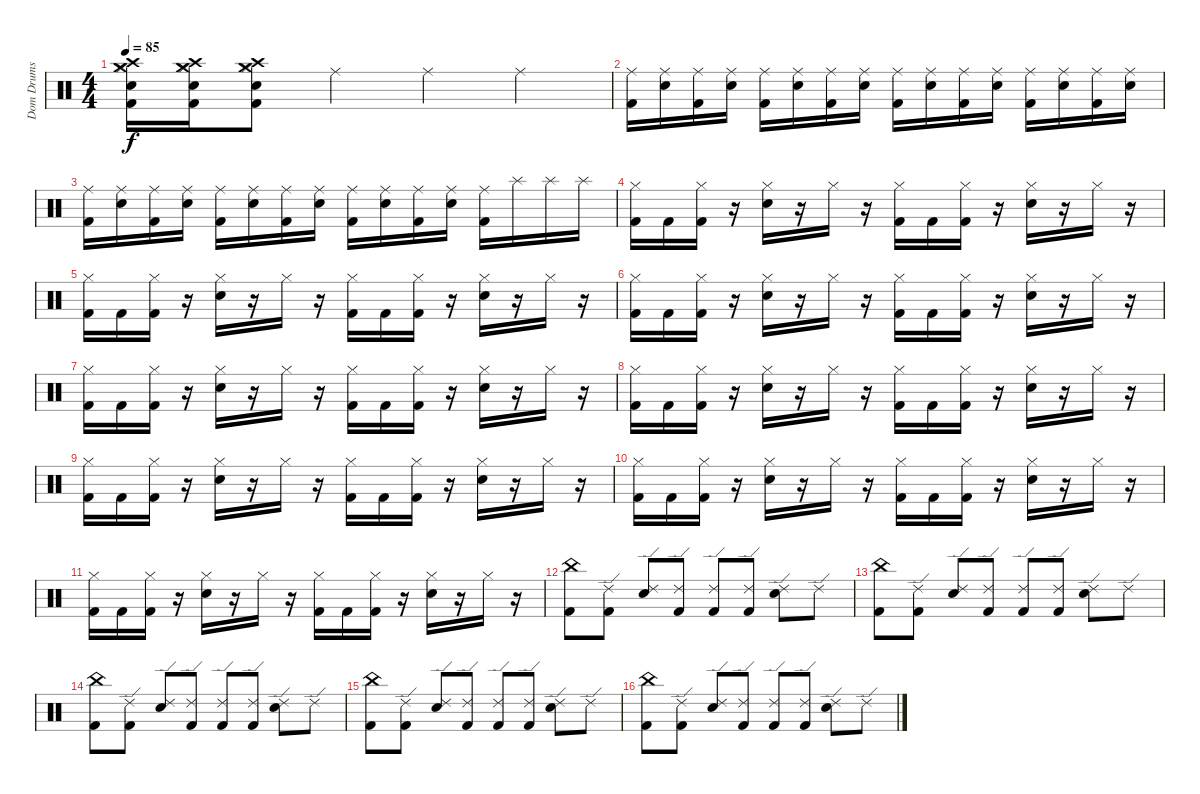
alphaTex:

\track ("Dom Drums" "Dom Drums") {instrument percussion}
\staff {score}
\articulation defaults
\ts (4 4)
\tempo 85
\clef neutral
\ks c
("Hi-Hat (closed)" "Crash medium (hit)" "Snare (hit) 2" "Crash high (hit)" "Kick (hit) 2").16{dy f} ("Hi-Hat (closed)" "Crash medium (hit)" "Snare (hit) 2" "Crash high (hit)" "Kick (hit) 2").16 ("Hi-Hat (closed)" "Crash medium (hit)" "Snare (hit) 2" "Crash high (hit)" "Kick (hit) 2").8 "Ride (middle)".4 "Ride (middle)".4 "Ride (middle)".4 |
("Ride (middle)" "Kick (hit) 2").16 ("Ride (middle)" "Snare (hit) 2").16 ("Ride (middle)" "Kick (hit) 2").16 ("Ride (middle)" "Snare (hit) 2").16 ("Ride (middle)" "Kick (hit) 2").16 ("Ride (middle)" "Snare (hit) 2").16 ("Ride (middle)" "Kick (hit) 2").16 ("Ride (middle)" "Snare (hit) 2").16 ("Ride (middle)" "Kick (hit) 2").16 ("Ride (middle)" "Snare (hit) 2").16 ("Ride (middle)" "Kick (hit) 2").16 ("Ride (middle)" "Snare (hit) 2").16 ("Ride (middle)" "Kick (hit) 2").16 ("Ride (middle)" "Snare (hit) 2").16 ("Ride (middle)" "Kick (hit) 2").16 ("Ride (middle)" "Snare (hit) 2").16 |
("Ride (middle)" "Kick (hit) 2").16 ("Ride (middle)" "Snare (hit) 2").16 ("Ride (middle)" "Kick (hit) 2").16 ("Ride (middle)" "Snare (hit) 2").16 ("Ride (middle)" "Kick (hit) 2").16 ("Ride (middle)" "Snare (hit) 2").16 ("Ride (middle)" "Kick (hit) 2").16 ("Ride (middle)" "Snare (hit) 2").16 ("Ride (middle)" "Kick (hit) 2").16 ("Ride (middle)" "Snare (hit) 2").16 ("Ride (middle)" "Kick (hit) 2").16 ("Ride (middle)" "Snare (hit) 2").16 ("Ride (middle)" "Kick (hit) 2").16 "Splash (hit)".16 "Splash (hit)".16 "Splash (hit)".16 |
("Hi-Hat (closed)" "Kick (hit) 2").16 "Kick (hit) 2".16 ("Hi-Hat (closed)" "Kick (hit) 2").16 r.16 ("Hi-Hat (closed)" "Snare (hit) 2").16 r.16 "Hi-Hat (closed)".16 r.16 ("Hi-Hat (closed)" "Kick (hit) 2").16 "Kick (hit) 2".16 ("Hi-Hat (closed)" "Kick (hit) 2").16 r.16 ("Hi-Hat (closed)" "Snare (hit) 2").16 r.16 "Hi-Hat (closed)".16 r.16 |
("Hi-Hat (closed)" "Kick (hit) 2").16 "Kick (hit) 2".16 ("Hi-Hat (closed)" "Kick (hit) 2").16 r.16 ("Hi-Hat (closed)" "Snare (hit) 2").16 r.16 "Hi-Hat (closed)".16 r.16 ("Hi-Hat (closed)" "Kick (hit) 2").16 "Kick (hit) 2".16 ("Hi-Hat (closed)" "Kick (hit) 2").16 r.16 ("Hi-Hat (closed)" "Snare (hit) 2").16 r.16 "Hi-Hat (closed)".16 r.16 |
("Hi-Hat (closed)" "Kick (hit) 2").16 "Kick (hit) 2".16 ("Hi-Hat (closed)" "Kick (hit) 2").16 r.16 ("Hi-Hat (closed)" "Snare (hit) 2").16 r.16 "Hi-Hat (closed)".16 r.16 ("Hi-Hat (closed)" "Kick (hit) 2").16 "Kick (hit) 2".16 ("Hi-Hat (closed)" "Kick (hit) 2").16 r.16 ("Hi-Hat (closed)" "Snare (hit) 2").16 r.16 "Hi-Hat (closed)".16 r.16 |
("Hi-Hat (closed)" "Kick (hit) 2").16 "Kick (hit) 2".16 ("Hi-Hat (closed)" "Kick (hit) 2").16 r.16 ("Hi-Hat (closed)" "Snare (hit) 2").16 r.16 "Hi-Hat (closed)".16 r.16 ("Hi-Hat (closed)" "Kick (hit) 2").16 "Kick (hit) 2".16 ("Hi-Hat (closed)" "Kick (hit) 2").16 r.16 ("Hi-Hat (closed)" "Snare (hit) 2").16 r.16 "Hi-Hat (closed)".16 r.16 |
("Hi-Hat (closed)" "Kick (hit) 2").16 "Kick (hit) 2".16 ("Hi-Hat (closed)" "Kick (hit) 2").16 r.16 ("Hi-Hat (closed)" "Snare (hit) 2").16 r.16 "Hi-Hat (closed)".16 r.16 ("Hi-Hat (closed)" "Kick (hit) 2").16 "Kick (hit) 2".16 ("Hi-Hat (closed)" "Kick (hit) 2").16 r.16 ("Hi-Hat (closed)" "Snare (hit) 2").16 r.16 "Hi-Hat (closed)".16 r.16 |
("Hi-Hat (closed)" "Kick (hit) 2").16 "Kick (hit) 2".16 ("Hi-Hat (closed)" "Kick (hit) 2").16 r.16 ("Hi-Hat (closed)" "Snare (hit) 2").16 r.16 "Hi-Hat (closed)".16 r.16 ("Hi-Hat (closed)" "Kick (hit) 2").16 "Kick (hit) 2".16 ("Hi-Hat (closed)" "Kick (hit) 2").16 r.16 ("Hi-Hat (closed)" "Snare (hit) 2").16 r.16 "Hi-Hat (closed)".16 r.16 |
("Hi-Hat (closed)" "Kick (hit) 2").16 "Kick (hit) 2".16 ("Hi-Hat (closed)" "Kick (hit) 2").16 r.16 ("Hi-Hat (closed)" "Snare (hit) 2").16 r.16 "Hi-Hat (closed)".16 r.16 ("Hi-Hat (closed)" "Kick (hit) 2").16 "Kick (hit) 2".16 ("Hi-Hat (closed)" "Kick (hit) 2").16 r.16 ("Hi-Hat (closed)" "Snare (hit) 2").16 r.16 "Hi-Hat (closed)".16 r.16 |
("Hi-Hat (closed)" "Kick (hit) 2").16 "Kick (hit) 2".16 ("Hi-Hat (closed)" "Kick (hit) 2").16 r.16 ("Hi-Hat (closed)" "Snare (hit) 2").16 r.16 "Hi-Hat (closed)".16 r.16 ("Hi-Hat (closed)" "Kick (hit) 2").16 "Kick (hit) 2".16 ("Hi-Hat (closed)" "Kick (hit) 2").16 r.16 ("Hi-Hat (closed)" "Snare (hit) 2").16 r.16 "Hi-Hat (closed)".16 r.16 |
("China (hit)" "Kick (hit) 2").8 ("Ride (edge) 2" "Kick (hit) 2").8 ("Ride (edge) 2" "Snare (hit) 2").8 ("Ride (edge) 2" "Kick (hit) 2").8 ("Ride (edge) 2" "Kick (hit) 2").8 ("Ride (edge) 2" "Kick (hit) 2").8 ("Ride (edge) 2" "Snare (hit) 2").8 "Ride (edge) 2".8 |
("China (hit)" "Kick (hit) 2").8 ("Ride (edge) 2" "Kick (hit) 2").8 ("Ride (edge) 2" "Snare (hit) 2").8 ("Ride (edge) 2" "Kick (hit) 2").8 ("Ride (edge) 2" "Kick (hit) 2").8 ("Ride (edge) 2" "Kick (hit) 2").8 ("Ride (edge) 2" "Snare (hit) 2").8 "Ride (edge) 2".8 |
("China (hit)" "Kick (hit) 2").8 ("Ride (edge) 2" "Kick (hit) 2").8 ("Ride (edge) 2" "Snare (hit) 2").8 ("Ride (edge) 2" "Kick (hit) 2").8 ("Ride (edge) 2" "Kick (hit) 2").8 ("Ride (edge) 2" "Kick (hit) 2").8 ("Ride (edge) 2" "Snare (hit) 2").8 "Ride (edge) 2".8 |
("China (hit)" "Kick (hit) 2").8 ("Ride (edge) 2" "Kick (hit) 2").8 ("Ride (edge) 2" "Snare (hit) 2").8 ("Ride (edge) 2" "Kick (hit) 2").8 ("Ride (edge) 2" "Kick (hit) 2").8 ("Ride (edge) 2" "Kick (hit) 2").8 ("Ride (edge) 2" "Snare (hit) 2").8 "Ride (edge) 2".8 |
("China (hit)" "Kick (hit) 2").8 ("Ride (edge) 2" "Kick (hit) 2").8 ("Ride (edge) 2" "Snare (hit) 2").8 ("Ride (edge) 2" "Kick (hit) 2").8 ("Ride (edge) 2" "Kick (hit) 2").8 ("Ride (edge) 2" "Kick (hit) 2").8 ("Ride (edge) 2" "Snare (hit) 2").8 "Ride (edge) 2".8
